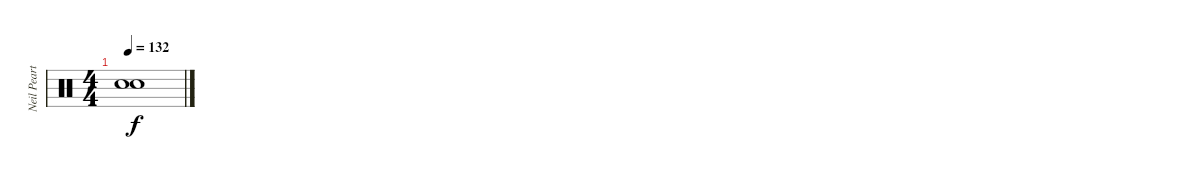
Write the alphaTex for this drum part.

\track ("Neil Peart" "Neil Peart") {instrument percussion}
\staff {score}
\articulation defaults
\ts (4 4)
\tempo 132
\clef neutral
\ks c
("Snare (hit)"{t} "Snare (hit)"{t}).1{dy f}
